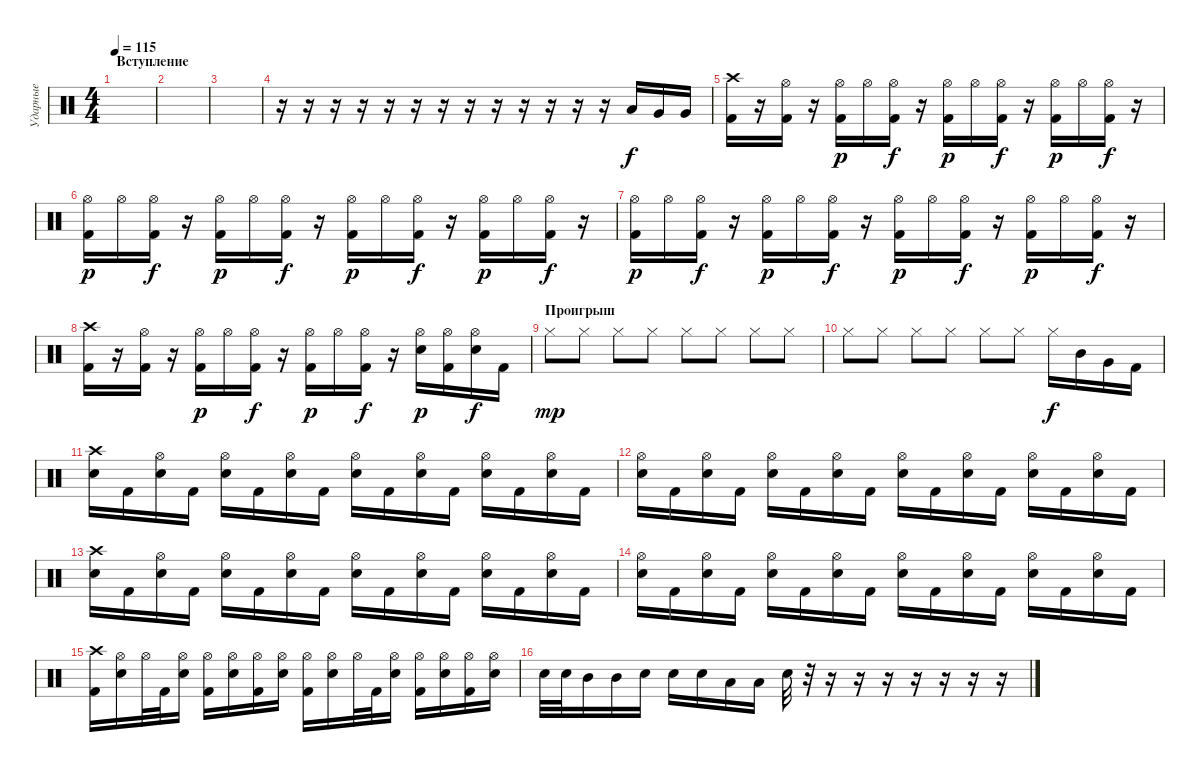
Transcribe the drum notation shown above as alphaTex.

\track ("Ударные" "Ударные") {instrument percussion}
\staff {score}
\articulation defaults
\ts (4 4)
\section ("" "Вступление")
\tempo 115
\clef neutral
\ks c
|
|
|
r.16 r.16 r.16 r.16 r.16 r.16 r.16 r.16 r.16 r.16 r.16 r.16 r.16 "Low Tom (hit)".16 "Very Low Tom (hit)".16 "Very Low Tom (hit)".16 |
("Crash high (hit)" "Kick (hit) 2").16 r.16 ("Hi-Hat (open)" "Kick (hit) 2").16 r.16 ("Hi-Hat (open)" "Kick (hit) 2").16{dy p} "Hi-Hat (open)".16 ("Hi-Hat (open)" "Kick (hit) 2").16{dy f} r.16 ("Hi-Hat (open)" "Kick (hit) 2").16{dy p} "Hi-Hat (open)".16 ("Hi-Hat (open)" "Kick (hit) 2").16{dy f} r.16 ("Hi-Hat (open)" "Kick (hit) 2").16{dy p} "Hi-Hat (open)".16 ("Hi-Hat (open)" "Kick (hit) 2").16{dy f} r.16 |
("Hi-Hat (open)" "Kick (hit) 2").16{dy p} "Hi-Hat (open)".16 ("Hi-Hat (open)" "Kick (hit) 2").16{dy f} r.16 ("Hi-Hat (open)" "Kick (hit) 2").16{dy p} "Hi-Hat (open)".16 ("Hi-Hat (open)" "Kick (hit) 2").16{dy f} r.16 ("Hi-Hat (open)" "Kick (hit) 2").16{dy p} "Hi-Hat (open)".16 ("Hi-Hat (open)" "Kick (hit) 2").16{dy f} r.16 ("Hi-Hat (open)" "Kick (hit) 2").16{dy p} "Hi-Hat (open)".16 ("Hi-Hat (open)" "Kick (hit) 2").16{dy f} r.16 |
("Hi-Hat (open)" "Kick (hit) 2").16{dy p} "Hi-Hat (open)".16 ("Hi-Hat (open)" "Kick (hit) 2").16{dy f} r.16 ("Hi-Hat (open)" "Kick (hit) 2").16{dy p} "Hi-Hat (open)".16 ("Hi-Hat (open)" "Kick (hit) 2").16{dy f} r.16 ("Hi-Hat (open)" "Kick (hit) 2").16{dy p} "Hi-Hat (open)".16 ("Hi-Hat (open)" "Kick (hit) 2").16{dy f} r.16 ("Hi-Hat (open)" "Kick (hit) 2").16{dy p} "Hi-Hat (open)".16 ("Hi-Hat (open)" "Kick (hit) 2").16{dy f} r.16 |
("Crash high (hit)" "Kick (hit) 2").16 r.16 ("Hi-Hat (open)" "Kick (hit) 2").16 r.16 ("Hi-Hat (open)" "Kick (hit) 2").16{dy p} "Hi-Hat (open)".16 ("Hi-Hat (open)" "Kick (hit) 2").16{dy f} r.16 ("Hi-Hat (open)" "Kick (hit) 2").16{dy p} "Hi-Hat (open)".16 ("Hi-Hat (open)" "Kick (hit) 2").16{dy f} r.16 ("Hi-Hat (open)" "Snare (hit) 2").16{dy p} ("Hi-Hat (open)" "Kick (hit) 2").16 ("Hi-Hat (open)" "Snare (hit) 2").16{dy f} "Kick (hit) 2".16 |
\section ("" "Проигрыш")
"Hi-Hat (closed)".8{dy mp} "Hi-Hat (closed)".8 "Hi-Hat (closed)".8 "Hi-Hat (closed)".8 "Hi-Hat (closed)".8 "Hi-Hat (closed)".8 "Hi-Hat (closed)".8 "Hi-Hat (closed)".8 |
"Hi-Hat (closed)".8 "Hi-Hat (closed)".8 "Hi-Hat (closed)".8 "Hi-Hat (closed)".8 "Hi-Hat (closed)".8 "Hi-Hat (closed)".8 "Hi-Hat (closed)".16{dy f} "Mid Tom (hit)".16 "Very Low Tom (hit)".16 "Kick (hit) 2".16 |
("Crash high (hit)" "Snare (hit) 2").16 "Kick (hit) 2".16 ("Hi-Hat (open)" "Snare (hit) 2").16 "Kick (hit) 2".16 ("Hi-Hat (open)" "Snare (hit) 2").16 "Kick (hit) 2".16 ("Hi-Hat (open)" "Snare (hit) 2").16 "Kick (hit) 2".16 ("Hi-Hat (open)" "Snare (hit) 2").16 "Kick (hit) 2".16 ("Hi-Hat (open)" "Snare (hit) 2").16 "Kick (hit) 2".16 ("Hi-Hat (open)" "Snare (hit) 2").16 "Kick (hit) 2".16 ("Hi-Hat (open)" "Snare (hit) 2").16 "Kick (hit) 2".16 |
("Hi-Hat (open)" "Snare (hit) 2").16 "Kick (hit) 2".16 ("Hi-Hat (open)" "Snare (hit) 2").16 "Kick (hit) 2".16 ("Hi-Hat (open)" "Snare (hit) 2").16 "Kick (hit) 2".16 ("Hi-Hat (open)" "Snare (hit) 2").16 "Kick (hit) 2".16 ("Hi-Hat (open)" "Snare (hit) 2").16 "Kick (hit) 2".16 ("Hi-Hat (open)" "Snare (hit) 2").16 "Kick (hit) 2".16 ("Hi-Hat (open)" "Snare (hit) 2").16 "Kick (hit) 2".16 ("Hi-Hat (open)" "Snare (hit) 2").16 "Kick (hit) 2".16 |
("Crash high (hit)" "Snare (hit) 2").16 "Kick (hit) 2".16 ("Hi-Hat (open)" "Snare (hit) 2").16 "Kick (hit) 2".16 ("Hi-Hat (open)" "Snare (hit) 2").16 "Kick (hit) 2".16 ("Hi-Hat (open)" "Snare (hit) 2").16 "Kick (hit) 2".16 ("Hi-Hat (open)" "Snare (hit) 2").16 "Kick (hit) 2".16 ("Hi-Hat (open)" "Snare (hit) 2").16 "Kick (hit) 2".16 ("Hi-Hat (open)" "Snare (hit) 2").16 "Kick (hit) 2".16 ("Hi-Hat (open)" "Snare (hit) 2").16 "Kick (hit) 2".16 |
("Hi-Hat (open)" "Snare (hit) 2").16 "Kick (hit) 2".16 ("Hi-Hat (open)" "Snare (hit) 2").16 "Kick (hit) 2".16 ("Hi-Hat (open)" "Snare (hit) 2").16 "Kick (hit) 2".16 ("Hi-Hat (open)" "Snare (hit) 2").16 "Kick (hit) 2".16 ("Hi-Hat (open)" "Snare (hit) 2").16 "Kick (hit) 2".16 ("Hi-Hat (open)" "Snare (hit) 2").16 "Kick (hit) 2".16 ("Hi-Hat (open)" "Snare (hit) 2").16 "Kick (hit) 2".16 ("Hi-Hat (open)" "Snare (hit) 2").16 "Kick (hit) 2".16 |
("Crash high (hit)" "Kick (hit) 2").16 ("Hi-Hat (open)" "Snare (hit) 2").16 "Hi-Hat (open)".32 "Kick (hit) 2".32 ("Hi-Hat (open)" "Snare (hit) 2").16 ("Hi-Hat (open)" "Kick (hit) 2").16 ("Hi-Hat (open)" "Snare (hit) 2").16 ("Hi-Hat (open)" "Kick (hit) 2").16 ("Hi-Hat (open)" "Snare (hit) 2").16 ("Hi-Hat (open)" "Kick (hit) 2").16 ("Hi-Hat (open)" "Snare (hit) 2").16 "Hi-Hat (open)".32 "Kick (hit) 2".32 ("Hi-Hat (open)" "Snare (hit) 2").16 ("Hi-Hat (open)" "Kick (hit) 2").16 ("Hi-Hat (open)" "Snare (hit) 2").16 ("Hi-Hat (open)" "Kick (hit) 2").16 ("Hi-Hat (open)" "Snare (hit) 2").16 |
"Snare (hit) 2".32 "Snare (hit) 2".32 "Mid Tom (hit)".16 "Mid Tom (hit)".16 "Snare (hit) 2".16 "Snare (hit) 2".16 "Snare (hit) 2".16 "Low Tom (hit)".16 "Low Tom (hit)".16 "Snare (hit) 2".32 r.32 r.16 r.16 r.16 r.16 r.16 r.16 r.16
